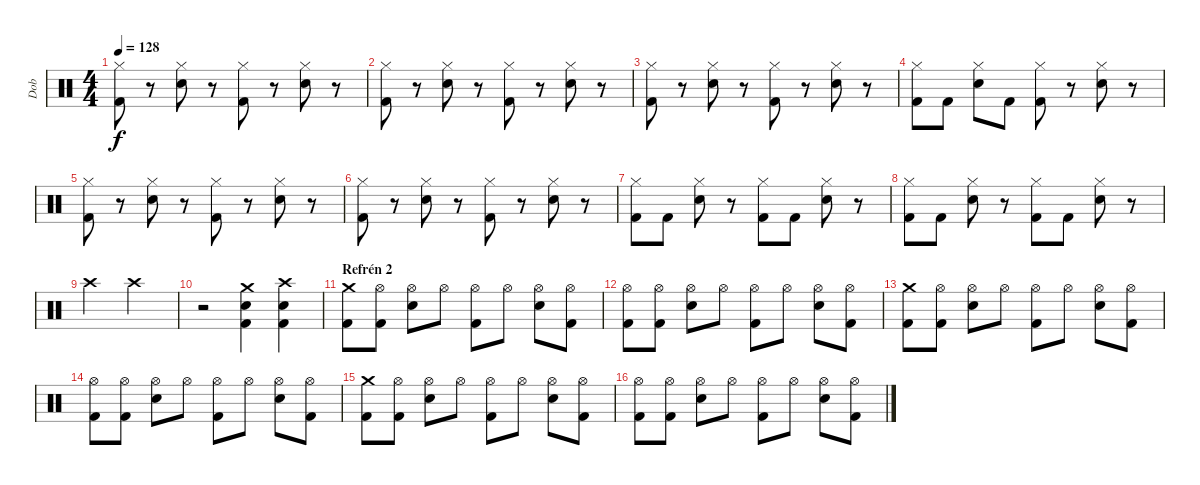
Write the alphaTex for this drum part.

\track ("Dob" "Dob") {instrument percussion}
\staff {score}
\articulation defaults
\ts (4 4)
\tempo 128
\clef neutral
\ks c
("Hi-Hat (closed)" "Kick (hit) 2").8{dy f} r.8 ("Hi-Hat (closed)" "Snare (hit) 2").8 r.8 ("Hi-Hat (closed)" "Kick (hit) 2").8 r.8 ("Hi-Hat (closed)" "Snare (hit) 2").8 r.8 |
("Hi-Hat (closed)" "Kick (hit) 2").8 r.8 ("Hi-Hat (closed)" "Snare (hit) 2").8 r.8 ("Hi-Hat (closed)" "Kick (hit) 2").8 r.8 ("Hi-Hat (closed)" "Snare (hit) 2").8 r.8 |
("Hi-Hat (closed)" "Kick (hit) 2").8 r.8 ("Hi-Hat (closed)" "Snare (hit) 2").8 r.8 ("Hi-Hat (closed)" "Kick (hit) 2").8 r.8 ("Hi-Hat (closed)" "Snare (hit) 2").8 r.8 |
("Hi-Hat (closed)" "Kick (hit) 2").8 "Kick (hit) 2".8 ("Hi-Hat (closed)" "Snare (hit) 2").8 "Kick (hit) 2".8 ("Hi-Hat (closed)" "Kick (hit) 2").8 r.8 ("Hi-Hat (closed)" "Snare (hit) 2").8 r.8 |
("Hi-Hat (closed)" "Kick (hit) 2").8 r.8 ("Hi-Hat (closed)" "Snare (hit) 2").8 r.8 ("Hi-Hat (closed)" "Kick (hit) 2").8 r.8 ("Hi-Hat (closed)" "Snare (hit) 2").8 r.8 |
("Hi-Hat (closed)" "Kick (hit) 2").8 r.8 ("Hi-Hat (closed)" "Snare (hit) 2").8 r.8 ("Hi-Hat (closed)" "Kick (hit) 2").8 r.8 ("Hi-Hat (closed)" "Snare (hit) 2").8 r.8 |
("Hi-Hat (closed)" "Kick (hit) 2").8 "Kick (hit) 2".8 ("Hi-Hat (closed)" "Snare (hit) 2").8 r.8 ("Hi-Hat (closed)" "Kick (hit) 2").8 "Kick (hit) 2".8 ("Hi-Hat (closed)" "Snare (hit) 2").8 r.8 |
("Hi-Hat (closed)" "Kick (hit) 2").8 "Kick (hit) 2".8 ("Hi-Hat (closed)" "Snare (hit) 2").8 r.8 ("Hi-Hat (closed)" "Kick (hit) 2").8 "Kick (hit) 2".8 ("Hi-Hat (closed)" "Snare (hit) 2").8 r.8 |
"Crash high (hit)".2 "Crash high (hit)".2 |
r.2 ("Crash medium (hit)" "Snare (hit) 2" "Kick (hit) 2").4 ("Crash high (hit)" "Snare (hit) 2" "Kick (hit) 2").4 |
\section ("" "Refrén 2")
("Crash medium (hit)" "Kick (hit) 2").8 ("Hi-Hat (open)" "Kick (hit) 2").8 ("Hi-Hat (open)" "Snare (hit) 2").8 "Hi-Hat (open)".8 ("Hi-Hat (open)" "Kick (hit) 2").8 "Hi-Hat (open)".8 ("Hi-Hat (open)" "Snare (hit) 2").8 ("Hi-Hat (open)" "Kick (hit) 2").8 |
("Hi-Hat (open)" "Kick (hit) 2").8 ("Hi-Hat (open)" "Kick (hit) 2").8 ("Hi-Hat (open)" "Snare (hit) 2").8 "Hi-Hat (open)".8 ("Hi-Hat (open)" "Kick (hit) 2").8 "Hi-Hat (open)".8 ("Hi-Hat (open)" "Snare (hit) 2").8 ("Hi-Hat (open)" "Kick (hit) 2").8 |
("Crash medium (hit)" "Kick (hit) 2").8 ("Hi-Hat (open)" "Kick (hit) 2").8 ("Hi-Hat (open)" "Snare (hit) 2").8 "Hi-Hat (open)".8 ("Hi-Hat (open)" "Kick (hit) 2").8 "Hi-Hat (open)".8 ("Hi-Hat (open)" "Snare (hit) 2").8 ("Hi-Hat (open)" "Kick (hit) 2").8 |
("Hi-Hat (open)" "Kick (hit) 2").8 ("Hi-Hat (open)" "Kick (hit) 2").8 ("Hi-Hat (open)" "Snare (hit) 2").8 "Hi-Hat (open)".8 ("Hi-Hat (open)" "Kick (hit) 2").8 "Hi-Hat (open)".8 ("Hi-Hat (open)" "Snare (hit) 2").8 ("Hi-Hat (open)" "Kick (hit) 2").8 |
("Crash medium (hit)" "Kick (hit) 2").8 ("Hi-Hat (open)" "Kick (hit) 2").8 ("Hi-Hat (open)" "Snare (hit) 2").8 "Hi-Hat (open)".8 ("Hi-Hat (open)" "Kick (hit) 2").8 "Hi-Hat (open)".8 ("Hi-Hat (open)" "Snare (hit) 2").8 ("Hi-Hat (open)" "Kick (hit) 2").8 |
("Hi-Hat (open)" "Kick (hit) 2").8 ("Hi-Hat (open)" "Kick (hit) 2").8 ("Hi-Hat (open)" "Snare (hit) 2").8 "Hi-Hat (open)".8 ("Hi-Hat (open)" "Kick (hit) 2").8 "Hi-Hat (open)".8 ("Hi-Hat (open)" "Snare (hit) 2").8 ("Hi-Hat (open)" "Kick (hit) 2").8
